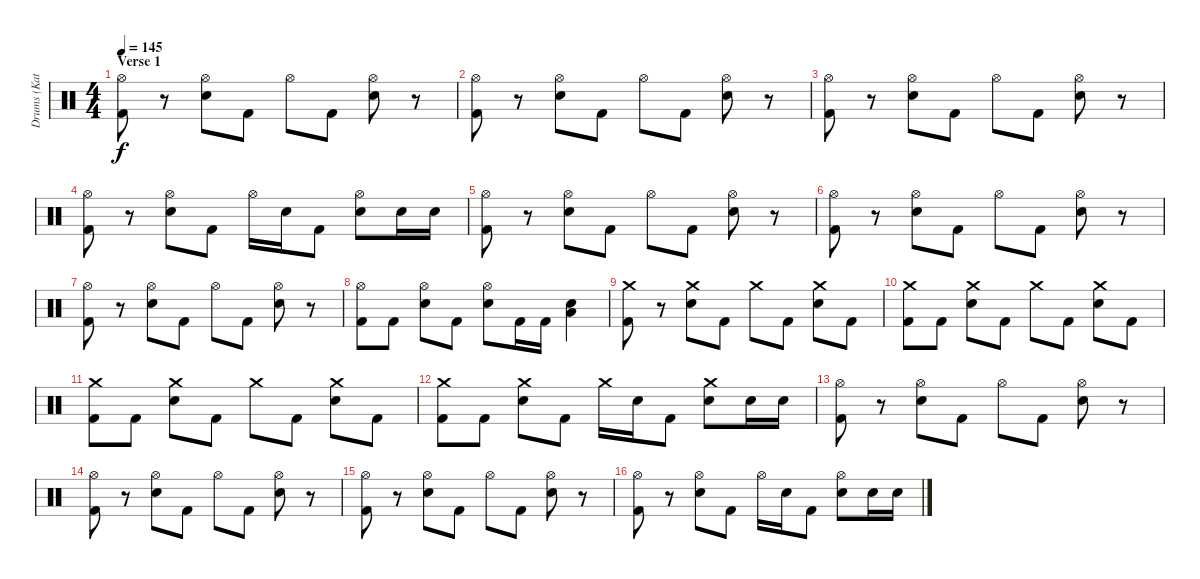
\track ("Drums (Katsuma)" "Drums (Kat") {instrument percussion}
\staff {score}
\articulation defaults
\ts (4 4)
\section ("" "Verse 1")
\tempo 145
\clef neutral
\ks c
("Hi-Hat (open)" "Kick (hit) 2").8{dy f} r.8 ("Hi-Hat (open)" "Electric Snare (hit)").8 "Kick (hit) 2".8 "Hi-Hat (open)".8 "Kick (hit) 2".8 ("Hi-Hat (open)" "Electric Snare (hit)").8 r.8 |
("Hi-Hat (open)" "Kick (hit) 2").8 r.8 ("Hi-Hat (open)" "Electric Snare (hit)").8 "Kick (hit) 2".8 "Hi-Hat (open)".8 "Kick (hit) 2".8 ("Hi-Hat (open)" "Electric Snare (hit)").8 r.8 |
("Hi-Hat (open)" "Kick (hit) 2").8 r.8 ("Hi-Hat (open)" "Electric Snare (hit)").8 "Kick (hit) 2".8 "Hi-Hat (open)".8 "Kick (hit) 2".8 ("Hi-Hat (open)" "Electric Snare (hit)").8 r.8 |
("Hi-Hat (open)" "Kick (hit) 2").8 r.8 ("Hi-Hat (open)" "Electric Snare (hit)").8 "Kick (hit) 2".8 "Hi-Hat (open)".16 "Electric Snare (hit)".16 "Kick (hit) 2".8 ("Hi-Hat (open)" "Electric Snare (hit)").8 "Electric Snare (hit)".16 "Electric Snare (hit)".16 |
("Hi-Hat (open)" "Kick (hit) 2").8 r.8 ("Hi-Hat (open)" "Electric Snare (hit)").8 "Kick (hit) 2".8 "Hi-Hat (open)".8 "Kick (hit) 2".8 ("Hi-Hat (open)" "Electric Snare (hit)").8 r.8 |
("Hi-Hat (open)" "Kick (hit) 2").8 r.8 ("Hi-Hat (open)" "Electric Snare (hit)").8 "Kick (hit) 2".8 "Hi-Hat (open)".8 "Kick (hit) 2".8 ("Hi-Hat (open)" "Electric Snare (hit)").8 r.8 |
("Hi-Hat (open)" "Kick (hit) 2").8 r.8 ("Hi-Hat (open)" "Electric Snare (hit)").8 "Kick (hit) 2".8 "Hi-Hat (open)".8 "Kick (hit) 2".8 ("Hi-Hat (open)" "Electric Snare (hit)").8 r.8 |
("Hi-Hat (open)" "Kick (hit) 2").8 "Kick (hit) 2".8 ("Hi-Hat (open)" "Electric Snare (hit)").8 "Kick (hit) 2".8 ("Hi-Hat (open)" "Electric Snare (hit)").8 "Kick (hit) 2".16 "Kick (hit) 2".16 ("Electric Snare (hit)" "Low Tom (hit)").4 |
("Crash medium (hit)" "Kick (hit) 2").8 r.8 ("Crash medium (hit)" "Electric Snare (hit)").8 "Kick (hit) 2".8 "Crash medium (hit)".8 "Kick (hit) 2".8 ("Crash medium (hit)" "Electric Snare (hit)").8 "Kick (hit) 2".8 |
("Crash medium (hit)" "Kick (hit) 2").8 "Kick (hit) 2".8 ("Crash medium (hit)" "Electric Snare (hit)").8 "Kick (hit) 2".8 "Crash medium (hit)".8 "Kick (hit) 2".8 ("Crash medium (hit)" "Electric Snare (hit)").8 "Kick (hit) 2".8 |
("Crash medium (hit)" "Kick (hit) 2").8 "Kick (hit) 2".8 ("Crash medium (hit)" "Electric Snare (hit)").8 "Kick (hit) 2".8 "Crash medium (hit)".8 "Kick (hit) 2".8 ("Crash medium (hit)" "Electric Snare (hit)").8 "Kick (hit) 2".8 |
("Crash medium (hit)" "Kick (hit) 2").8 "Kick (hit) 2".8 ("Crash medium (hit)" "Electric Snare (hit)").8 "Kick (hit) 2".8 "Crash medium (hit)".16 "Electric Snare (hit)".16 "Kick (hit) 2".8 ("Crash medium (hit)" "Electric Snare (hit)").8 "Electric Snare (hit)".16 "Electric Snare (hit)".16 |
("Hi-Hat (open)" "Kick (hit) 2").8 r.8 ("Hi-Hat (open)" "Electric Snare (hit)").8 "Kick (hit) 2".8 "Hi-Hat (open)".8 "Kick (hit) 2".8 ("Hi-Hat (open)" "Electric Snare (hit)").8 r.8 |
("Hi-Hat (open)" "Kick (hit) 2").8 r.8 ("Hi-Hat (open)" "Electric Snare (hit)").8 "Kick (hit) 2".8 "Hi-Hat (open)".8 "Kick (hit) 2".8 ("Hi-Hat (open)" "Electric Snare (hit)").8 r.8 |
("Hi-Hat (open)" "Kick (hit) 2").8 r.8 ("Hi-Hat (open)" "Electric Snare (hit)").8 "Kick (hit) 2".8 "Hi-Hat (open)".8 "Kick (hit) 2".8 ("Hi-Hat (open)" "Electric Snare (hit)").8 r.8 |
("Hi-Hat (open)" "Kick (hit) 2").8 r.8 ("Hi-Hat (open)" "Electric Snare (hit)").8 "Kick (hit) 2".8 "Hi-Hat (open)".16 "Electric Snare (hit)".16 "Kick (hit) 2".8 ("Hi-Hat (open)" "Electric Snare (hit)").8 "Electric Snare (hit)".16 "Electric Snare (hit)".16
